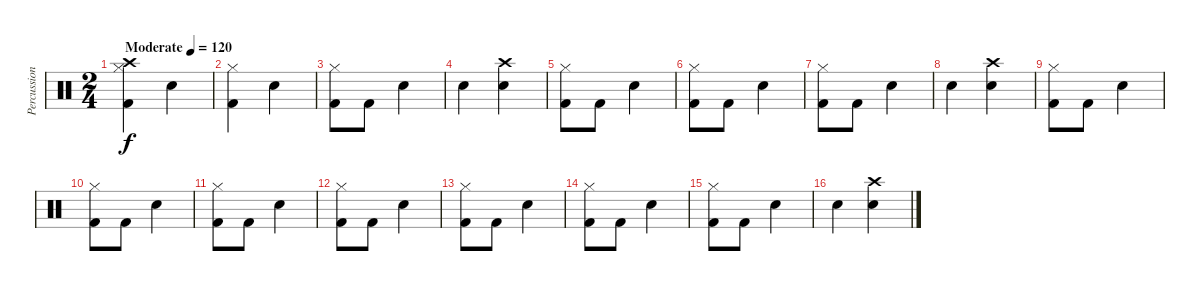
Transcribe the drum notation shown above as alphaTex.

\track ("Percussion" "Percussion") {instrument percussion}
\staff {score}
\articulation defaults
\ts (2 4)
\tempo (120 "Moderate")
\clef neutral
\ks c
("Crash high (hit)" "Hi-Hat (closed)" "Kick (hit) 2").4{dy f} "Snare (hit) 2".4 |
("Hi-Hat (closed)" "Kick (hit) 2").4 "Snare (hit) 2".4 |
("Hi-Hat (closed)" "Kick (hit) 2").8 "Kick (hit) 2".8 "Snare (hit) 2".4 |
"Snare (hit) 2".4 ("Crash high (hit)" "Snare (hit) 2").4 |
("Hi-Hat (closed)" "Kick (hit) 2").8 "Kick (hit) 2".8 "Snare (hit) 2".4 |
("Hi-Hat (closed)" "Kick (hit) 2").8 "Kick (hit) 2".8 "Snare (hit) 2".4 |
("Hi-Hat (closed)" "Kick (hit) 2").8 "Kick (hit) 2".8 "Snare (hit) 2".4 |
"Snare (hit) 2".4 ("Crash high (hit)" "Snare (hit) 2").4 |
("Hi-Hat (closed)" "Kick (hit) 2").8 "Kick (hit) 2".8 "Snare (hit) 2".4 |
("Hi-Hat (closed)" "Kick (hit) 2").8 "Kick (hit) 2".8 "Snare (hit) 2".4 |
("Hi-Hat (closed)" "Kick (hit) 2").8 "Kick (hit) 2".8 "Snare (hit) 2".4 |
("Hi-Hat (closed)" "Kick (hit) 2").8 "Kick (hit) 2".8 "Snare (hit) 2".4 |
("Hi-Hat (closed)" "Kick (hit) 2").8 "Kick (hit) 2".8 "Snare (hit) 2".4 |
("Hi-Hat (closed)" "Kick (hit) 2").8 "Kick (hit) 2".8 "Snare (hit) 2".4 |
("Hi-Hat (closed)" "Kick (hit) 2").8 "Kick (hit) 2".8 "Snare (hit) 2".4 |
"Snare (hit) 2".4 ("Crash high (hit)" "Snare (hit) 2").4
